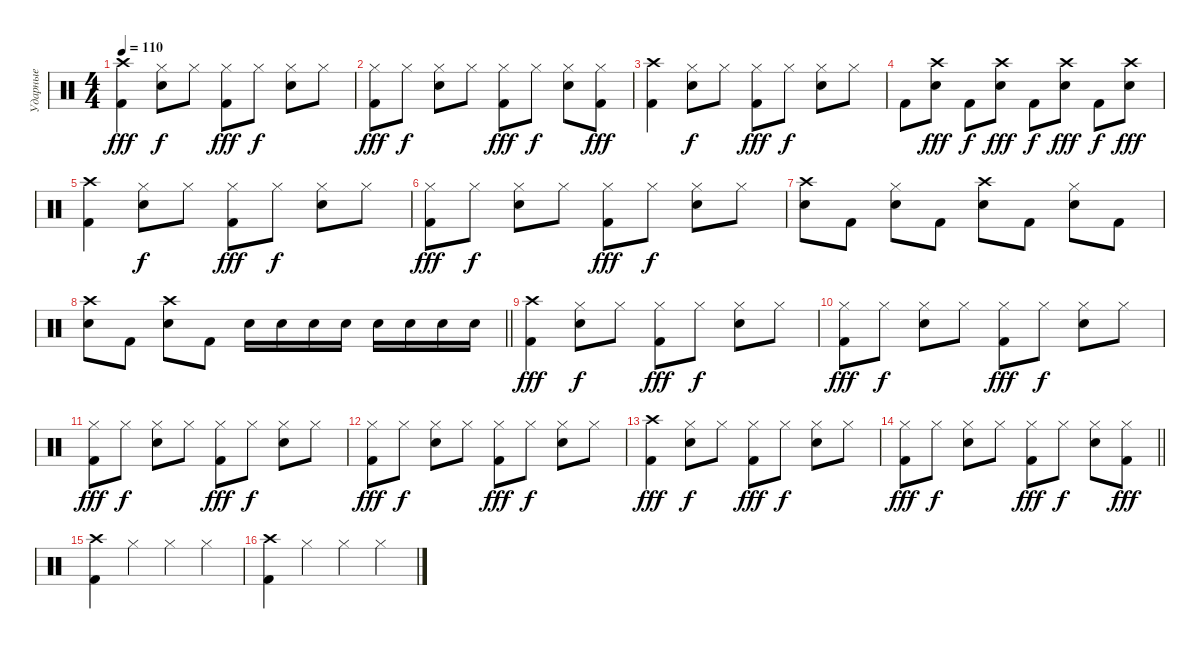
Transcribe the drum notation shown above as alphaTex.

\track ("Ударные" "Ударные") {instrument percussion}
\staff
\articulation defaults
\ts (4 4)
\tempo 110
\clef neutral
\ks c
("Kick (hit) 2" "Crash high (hit)").4{dy fff} ("Snare (hit) 2" "Hi-Hat (closed)").8{dy f} "Hi-Hat (closed)".8 ("Kick (hit) 2" "Hi-Hat (closed)").8{dy fff} "Hi-Hat (closed)".8{dy f} ("Snare (hit) 2" "Hi-Hat (closed)").8 "Hi-Hat (closed)".8 |
("Kick (hit) 2" "Hi-Hat (closed)").8{dy fff} "Hi-Hat (closed)".8{dy f} ("Snare (hit) 2" "Hi-Hat (closed)").8 "Hi-Hat (closed)".8 ("Kick (hit) 2" "Hi-Hat (closed)").8{dy fff} "Hi-Hat (closed)".8{dy f} ("Snare (hit) 2" "Hi-Hat (closed)").8 ("Kick (hit) 2" "Hi-Hat (closed)").8{dy fff} |
("Kick (hit) 2" "Crash high (hit)").4 ("Snare (hit) 2" "Hi-Hat (closed)").8{dy f} "Hi-Hat (closed)".8 ("Kick (hit) 2" "Hi-Hat (closed)").8{dy fff} "Hi-Hat (closed)".8{dy f} ("Snare (hit) 2" "Hi-Hat (closed)").8 "Hi-Hat (closed)".8 |
"Kick (hit) 2".8 ("Snare (hit) 2" "Crash high (hit)").8{dy fff} "Kick (hit) 2".8{dy f} ("Snare (hit) 2" "Crash high (hit)").8{dy fff} "Kick (hit) 2".8{dy f} ("Snare (hit) 2" "Crash high (hit)").8{dy fff} "Kick (hit) 2".8{dy f} ("Snare (hit) 2" "Crash high (hit)").8{dy fff} |
("Kick (hit) 2" "Crash high (hit)").4 ("Snare (hit) 2" "Hi-Hat (closed)").8{dy f} "Hi-Hat (closed)".8 ("Kick (hit) 2" "Hi-Hat (closed)").8{dy fff} "Hi-Hat (closed)".8{dy f} ("Snare (hit) 2" "Hi-Hat (closed)").8 "Hi-Hat (closed)".8 |
("Kick (hit) 2" "Hi-Hat (closed)").8{dy fff} "Hi-Hat (closed)".8{dy f} ("Snare (hit) 2" "Hi-Hat (closed)").8 "Hi-Hat (closed)".8 ("Kick (hit) 2" "Hi-Hat (closed)").8{dy fff} "Hi-Hat (closed)".8{dy f} ("Snare (hit) 2" "Hi-Hat (closed)").8 "Hi-Hat (closed)".8 |
("Snare (hit) 2" "Crash high (hit)").8 "Kick (hit) 2".8 ("Snare (hit) 2" "Hi-Hat (closed)").8 "Kick (hit) 2".8 ("Snare (hit) 2" "Crash high (hit)").8 "Kick (hit) 2".8 ("Snare (hit) 2" "Hi-Hat (closed)").8 "Kick (hit) 2".8 |
\barLineRight lightlight
("Snare (hit) 2" "Crash high (hit)").8 "Kick (hit) 2".8 ("Snare (hit) 2" "Crash high (hit)").8 "Kick (hit) 2".8 "Snare (hit) 2".16 "Snare (hit) 2".16 "Snare (hit) 2".16 "Snare (hit) 2".16 "Snare (hit) 2".16 "Snare (hit) 2".16 "Snare (hit) 2".16 "Snare (hit) 2".16 |
("Kick (hit) 2" "Crash high (hit)").4{dy fff} ("Snare (hit) 2" "Hi-Hat (closed)").8{dy f} "Hi-Hat (closed)".8 ("Kick (hit) 2" "Hi-Hat (closed)").8{dy fff} "Hi-Hat (closed)".8{dy f} ("Snare (hit) 2" "Hi-Hat (closed)").8 "Hi-Hat (closed)".8 |
("Kick (hit) 2" "Hi-Hat (closed)").8{dy fff} "Hi-Hat (closed)".8{dy f} ("Snare (hit) 2" "Hi-Hat (closed)").8 "Hi-Hat (closed)".8 ("Kick (hit) 2" "Hi-Hat (closed)").8{dy fff} "Hi-Hat (closed)".8{dy f} ("Snare (hit) 2" "Hi-Hat (closed)").8 "Hi-Hat (closed)".8 |
("Kick (hit) 2" "Hi-Hat (closed)").8{dy fff} "Hi-Hat (closed)".8{dy f} ("Snare (hit) 2" "Hi-Hat (closed)").8 "Hi-Hat (closed)".8 ("Kick (hit) 2" "Hi-Hat (closed)").8{dy fff} "Hi-Hat (closed)".8{dy f} ("Snare (hit) 2" "Hi-Hat (closed)").8 "Hi-Hat (closed)".8 |
("Kick (hit) 2" "Hi-Hat (closed)").8{dy fff} "Hi-Hat (closed)".8{dy f} ("Snare (hit) 2" "Hi-Hat (closed)").8 "Hi-Hat (closed)".8 ("Kick (hit) 2" "Hi-Hat (closed)").8{dy fff} "Hi-Hat (closed)".8{dy f} ("Snare (hit) 2" "Hi-Hat (closed)").8 "Hi-Hat (closed)".8 |
("Kick (hit) 2" "Crash high (hit)").4{dy fff} ("Snare (hit) 2" "Hi-Hat (closed)").8{dy f} "Hi-Hat (closed)".8 ("Kick (hit) 2" "Hi-Hat (closed)").8{dy fff} "Hi-Hat (closed)".8{dy f} ("Snare (hit) 2" "Hi-Hat (closed)").8 "Hi-Hat (closed)".8 |
\barLineRight lightlight
("Kick (hit) 2" "Hi-Hat (closed)").8{dy fff} "Hi-Hat (closed)".8{dy f} ("Snare (hit) 2" "Hi-Hat (closed)").8 "Hi-Hat (closed)".8 ("Kick (hit) 2" "Hi-Hat (closed)").8{dy fff} "Hi-Hat (closed)".8{dy f} ("Snare (hit) 2" "Hi-Hat (closed)").8 ("Kick (hit) 2" "Hi-Hat (closed)").8{dy fff} |
("Kick (hit) 2" "Crash high (hit)").4 "Hi-Hat (closed)".4 "Hi-Hat (closed)".4 "Hi-Hat (closed)".4 |
("Kick (hit) 2" "Crash high (hit)").4 "Hi-Hat (closed)".4 "Hi-Hat (closed)".4 "Hi-Hat (closed)".4
